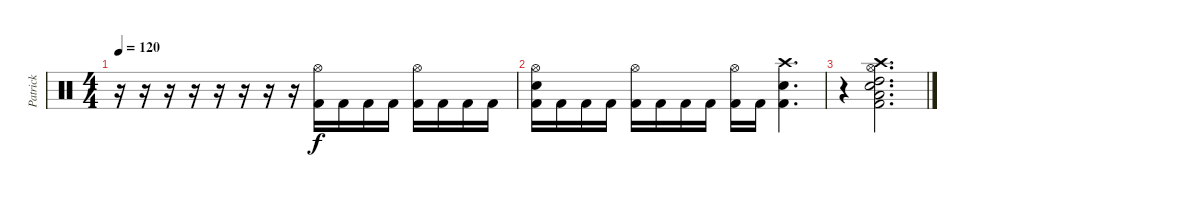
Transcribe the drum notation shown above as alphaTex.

\track ("Patrick" "Patrick") {instrument percussion}
\staff {score}
\articulation defaults
\ts (4 4)
\tempo 120
\clef neutral
\ks c
r.16{dy f} r.16 r.16 r.16 r.16 r.16 r.16 r.16 ("Hi-Hat (open)" "Kick (hit) 2").16 "Kick (hit) 2".16 "Kick (hit) 2".16 "Kick (hit) 2".16 ("Hi-Hat (open)" "Kick (hit) 2").16 "Kick (hit) 2".16 "Kick (hit) 2".16 "Kick (hit) 2".16 |
("Hi-Hat (open)" "Snare (hit) 2" "Kick (hit) 2").16 "Kick (hit) 2".16 "Kick (hit) 2".16 "Kick (hit) 2".16 ("Hi-Hat (open)" "Kick (hit) 2").16 "Kick (hit) 2".16 "Kick (hit) 2".16 "Kick (hit) 2".16 ("Hi-Hat (open)" "Kick (hit) 2").16 "Kick (hit) 2".16 ("Snare (hit) 2" "Crash high (hit)" "Kick (hit) 2").4{d} |
r.4 ("Low Tom (hit)" "Hi-Hat (open)" "High Tom (hit)" "Snare (hit) 2" "Crash high (hit)" "Kick (hit) 2").2{d}
